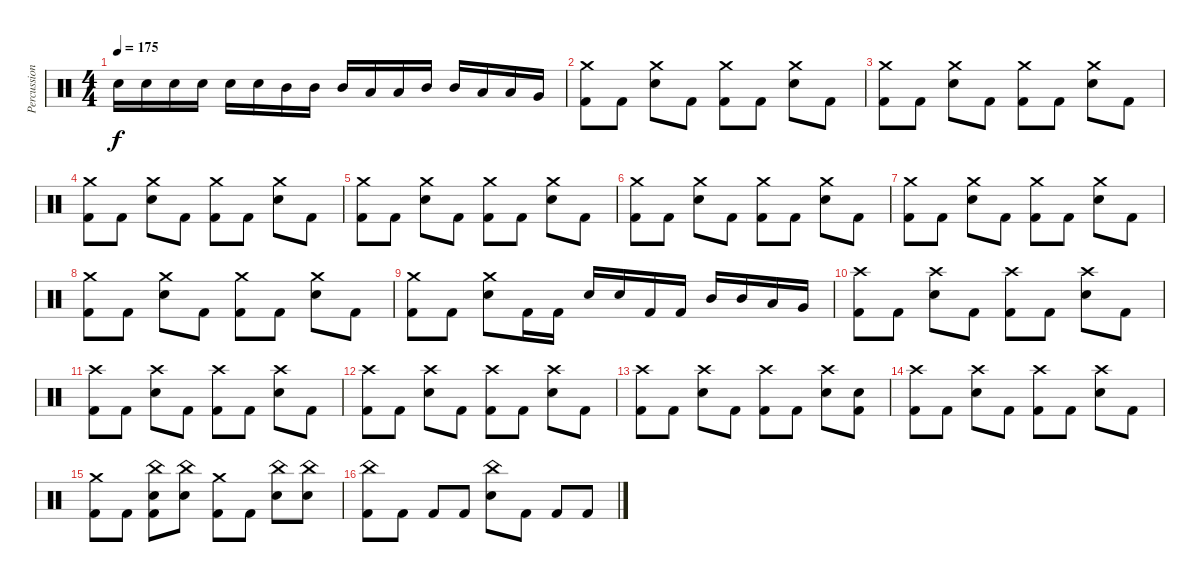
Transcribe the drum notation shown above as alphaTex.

\track ("Percussion" "Percussion") {instrument percussion}
\staff {score}
\articulation defaults
\ts (4 4)
\tempo 175
\clef neutral
\ks c "Electric Snare (hit)".16{dy f} "Electric Snare (hit)".16 "Electric Snare (hit)".16 "Electric Snare (hit)".16 "Electric Snare (hit)".16 "Electric Snare (hit)".16 "Mid Tom (hit)".16 "Mid Tom (hit)".16 "Mid Tom (hit)".16 "Low Tom (hit)".16 "Low Tom (hit)".16 "Mid Tom (hit)".16 "Mid Tom (hit)".16 "Low Tom (hit)".16 "Low Tom (hit)".16 "Very Low Tom (hit)".16
|
("Crash medium (hit)" "Kick (hit) 2").8 "Kick (hit) 2".8 ("Crash medium (hit)" "Electric Snare (hit)").8 "Kick (hit) 2".8 ("Crash medium (hit)" "Kick (hit) 2").8 "Kick (hit) 2".8 ("Crash medium (hit)" "Electric Snare (hit)").8 "Kick (hit) 2".8 |
("Crash medium (hit)" "Kick (hit) 2").8 "Kick (hit) 2".8 ("Crash medium (hit)" "Electric Snare (hit)").8 "Kick (hit) 2".8 ("Crash medium (hit)" "Kick (hit) 2").8 "Kick (hit) 2".8 ("Crash medium (hit)" "Electric Snare (hit)").8 "Kick (hit) 2".8 |
("Crash medium (hit)" "Kick (hit) 2").8 "Kick (hit) 2".8 ("Crash medium (hit)" "Electric Snare (hit)").8 "Kick (hit) 2".8 ("Crash medium (hit)" "Kick (hit) 2").8 "Kick (hit) 2".8 ("Crash medium (hit)" "Electric Snare (hit)").8 "Kick (hit) 2".8 |
("Crash medium (hit)" "Kick (hit) 2").8 "Kick (hit) 2".8 ("Crash medium (hit)" "Electric Snare (hit)").8 "Kick (hit) 2".8 ("Crash medium (hit)" "Kick (hit) 2").8 "Kick (hit) 2".8 ("Crash medium (hit)" "Electric Snare (hit)").8 "Kick (hit) 2".8 |
("Crash medium (hit)" "Kick (hit) 2").8 "Kick (hit) 2".8 ("Crash medium (hit)" "Electric Snare (hit)").8 "Kick (hit) 2".8 ("Crash medium (hit)" "Kick (hit) 2").8 "Kick (hit) 2".8 ("Crash medium (hit)" "Electric Snare (hit)").8 "Kick (hit) 2".8 |
("Crash medium (hit)" "Kick (hit) 2").8 "Kick (hit) 2".8 ("Crash medium (hit)" "Electric Snare (hit)").8 "Kick (hit) 2".8 ("Crash medium (hit)" "Kick (hit) 2").8 "Kick (hit) 2".8 ("Crash medium (hit)" "Electric Snare (hit)").8 "Kick (hit) 2".8 |
("Crash medium (hit)" "Kick (hit) 2").8 "Kick (hit) 2".8 ("Crash medium (hit)" "Electric Snare (hit)").8 "Kick (hit) 2".8 ("Crash medium (hit)" "Kick (hit) 2").8 "Kick (hit) 2".8 ("Crash medium (hit)" "Electric Snare (hit)").8 "Kick (hit) 2".8 |
("Crash medium (hit)" "Kick (hit) 2").8 "Kick (hit) 2".8 ("Crash medium (hit)" "Electric Snare (hit)").8 "Kick (hit) 2".16 "Kick (hit) 2".16 "Electric Snare (hit)".16 "Electric Snare (hit)".16 "Kick (hit) 2".16 "Kick (hit) 2".16 "Mid Tom (hit)".16 "Mid Tom (hit)".16 "Low Tom (hit)".16 "Very Low Tom (hit)".16 |
("Crash high (hit)" "Kick (hit) 2").8 "Kick (hit) 2".8 ("Crash high (hit)" "Electric Snare (hit)").8 "Kick (hit) 2".8 ("Crash high (hit)" "Kick (hit) 2").8 "Kick (hit) 2".8 ("Crash high (hit)" "Electric Snare (hit)").8 "Kick (hit) 2".8 |
("Crash high (hit)" "Kick (hit) 2").8 "Kick (hit) 2".8 ("Crash high (hit)" "Electric Snare (hit)").8 "Kick (hit) 2".8 ("Crash high (hit)" "Kick (hit) 2").8 "Kick (hit) 2".8 ("Crash high (hit)" "Electric Snare (hit)").8 "Kick (hit) 2".8 |
("Crash high (hit)" "Kick (hit) 2").8 "Kick (hit) 2".8 ("Crash high (hit)" "Electric Snare (hit)").8 "Kick (hit) 2".8 ("Crash high (hit)" "Kick (hit) 2").8 "Kick (hit) 2".8 ("Crash high (hit)" "Electric Snare (hit)").8 "Kick (hit) 2".8 |
("Crash high (hit)" "Kick (hit) 2").8 "Kick (hit) 2".8 ("Crash high (hit)" "Electric Snare (hit)").8 "Kick (hit) 2".8 ("Crash high (hit)" "Kick (hit) 2").8 "Kick (hit) 2".8 ("Crash high (hit)" "Electric Snare (hit)").8 ("Electric Snare (hit)" "Kick (hit) 2").8 |
("Crash high (hit)" "Kick (hit) 2").8 "Kick (hit) 2".8 ("Crash high (hit)" "Electric Snare (hit)").8 "Kick (hit) 2".8 ("Crash high (hit)" "Kick (hit) 2").8 "Kick (hit) 2".8 ("Crash high (hit)" "Electric Snare (hit)").8 "Kick (hit) 2".8 |
("Crash medium (hit)" "Kick (hit) 2").8 "Kick (hit) 2".8 ("China (hit)" "Electric Snare (hit)" "Kick (hit) 2").8 ("China (hit)" "Electric Snare (hit)").8 ("Crash medium (hit)" "Kick (hit) 2").8 "Kick (hit) 2".8 ("China (hit)" "Electric Snare (hit)").8 ("China (hit)" "Electric Snare (hit)").8 |
("China (hit)" "Kick (hit) 2").8 "Kick (hit) 2".8 "Kick (hit) 2".8 "Kick (hit) 2".8 ("China (hit)" "Electric Snare (hit)").8 "Kick (hit) 2".8 "Kick (hit) 2".8 "Kick (hit) 2".8
